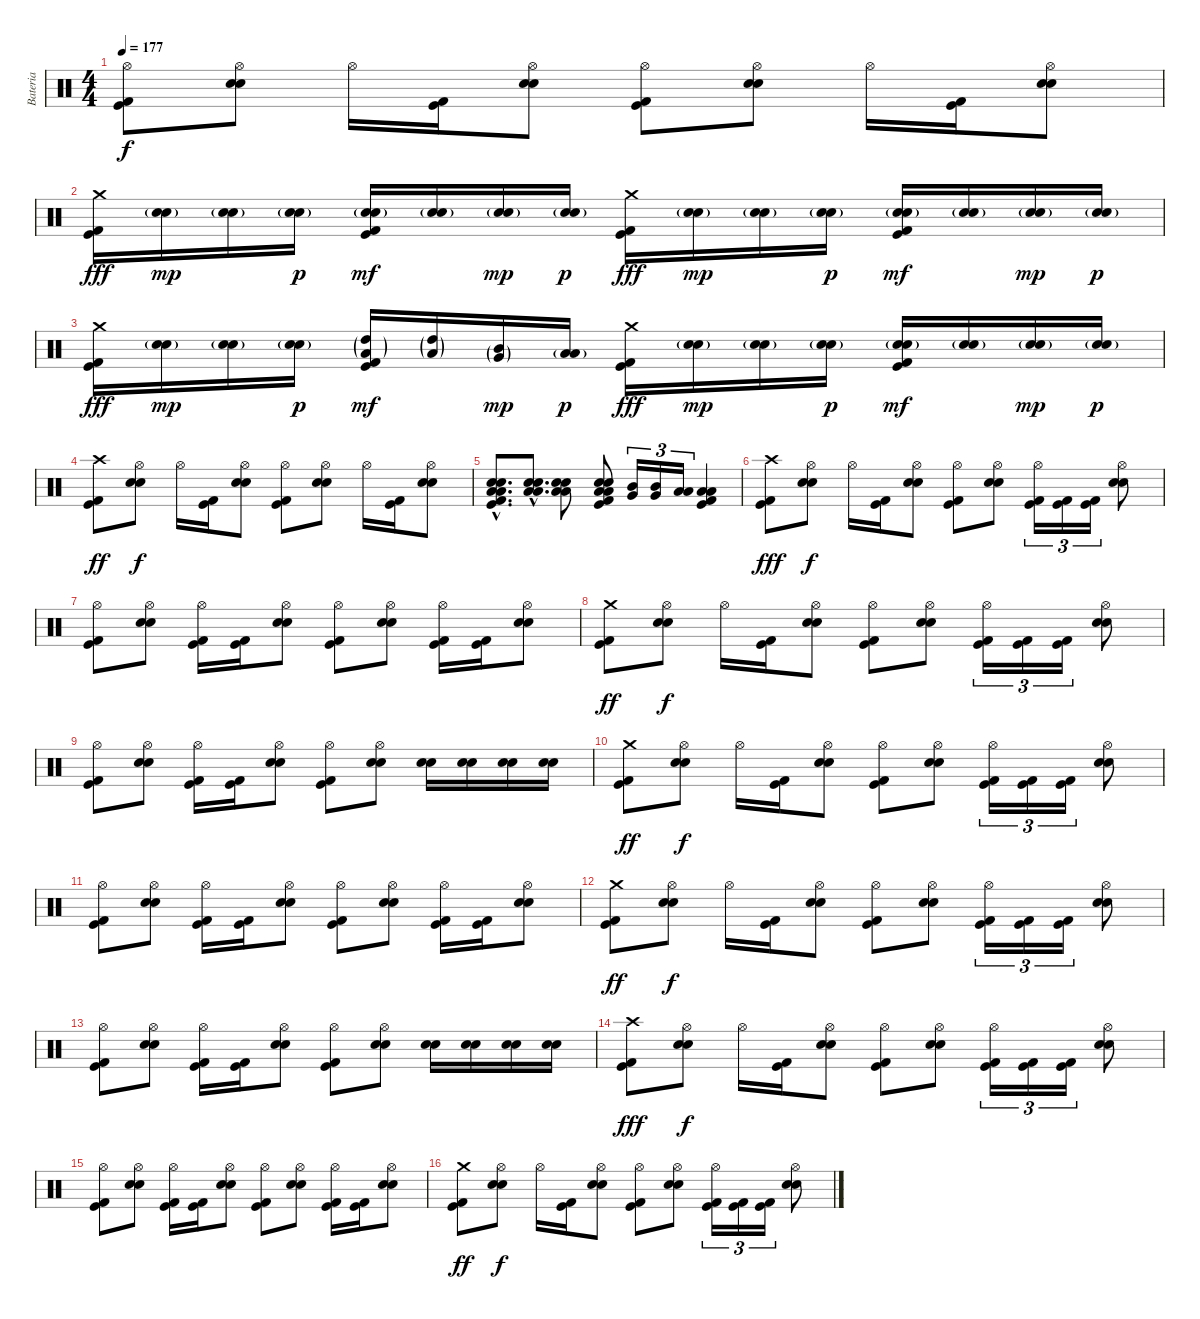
\track ("Bateria" "Bateria") {instrument percussion}
\staff {score}
\articulation defaults
\ts (4 4)
\tempo 177
\clef neutral
\ks c
("Hi-Hat (open)" "Kick (hit) 2" "Kick (hit)").8{dy f} ("Hi-Hat (open)" "Electric Snare (hit)" "Snare (hit) 2").8 "Hi-Hat (open)".16 ("Kick (hit) 2" "Kick (hit)").16 ("Hi-Hat (open)" "Electric Snare (hit)" "Snare (hit) 2").8 ("Hi-Hat (open)" "Kick (hit) 2" "Kick (hit)").8 ("Hi-Hat (open)" "Electric Snare (hit)" "Snare (hit) 2").8 "Hi-Hat (open)".16 ("Kick (hit) 2" "Kick (hit)").16 ("Hi-Hat (open)" "Electric Snare (hit)" "Snare (hit) 2").8 |
("Crash medium (hit)" "Kick (hit) 2" "Kick (hit)").16{dy fff} ("Electric Snare (hit)"{g} "Snare (hit) 2"{g}).16{dy mp} ("Electric Snare (hit)"{g} "Snare (hit) 2"{g}).16 ("Electric Snare (hit)"{g} "Snare (hit) 2"{g}).16{dy p} ("Electric Snare (hit)"{g} "Snare (hit) 2"{g} "Kick (hit) 2" "Kick (hit)").16{dy mf} ("Electric Snare (hit)"{g} "Snare (hit) 2"{g}).16 ("Electric Snare (hit)"{g} "Snare (hit) 2"{g}).16{dy mp} ("Electric Snare (hit)"{g} "Snare (hit) 2"{g}).16{dy p} ("Crash medium (hit)" "Kick (hit) 2" "Kick (hit)").16{dy fff} ("Electric Snare (hit)"{g} "Snare (hit) 2"{g}).16{dy mp} ("Electric Snare (hit)"{g} "Snare (hit) 2"{g}).16 ("Electric Snare (hit)"{g} "Snare (hit) 2"{g}).16{dy p} ("Electric Snare (hit)"{g} "Snare (hit) 2"{g} "Kick (hit) 2" "Kick (hit)").16{dy mf} ("Electric Snare (hit)"{g} "Snare (hit) 2"{g}).16 ("Electric Snare (hit)"{g} "Snare (hit) 2"{g}).16{dy mp} ("Electric Snare (hit)"{g} "Snare (hit) 2"{g}).16{dy p} |
("Crash medium (hit)" "Kick (hit) 2" "Kick (hit)").16{dy fff} ("Electric Snare (hit)"{g} "Snare (hit) 2"{g}).16{dy mp} ("Electric Snare (hit)"{g} "Snare (hit) 2"{g}).16 ("Electric Snare (hit)"{g} "Snare (hit) 2"{g}).16{dy p} ("High Tom (hit)"{g} "Low Tom (hit)"{g} "Kick (hit) 2" "Kick (hit)").16{dy mf} ("High Tom (hit)"{g} "Low Tom (hit)"{g}).16 ("Mid Tom (hit)"{g} "Very Low Tom (hit)"{g}).16{dy mp} ("Low Tom (hit)"{g} "Low Floor Tom (hit)"{g}).16{dy p} ("Crash medium (hit)" "Kick (hit) 2" "Kick (hit)").16{dy fff} ("Electric Snare (hit)"{g} "Snare (hit) 2"{g}).16{dy mp} ("Electric Snare (hit)"{g} "Snare (hit) 2"{g}).16 ("Electric Snare (hit)"{g} "Snare (hit) 2"{g}).16{dy p} ("Electric Snare (hit)"{g} "Snare (hit) 2"{g} "Kick (hit) 2" "Kick (hit)").16{dy mf} ("Electric Snare (hit)"{g} "Snare (hit) 2"{g}).16 ("Electric Snare (hit)"{g} "Snare (hit) 2"{g}).16{dy mp} ("Electric Snare (hit)"{g} "Snare (hit) 2"{g}).16{dy p} |
("Crash high (hit)" "Kick (hit) 2" "Kick (hit)").8{dy ff} ("Hi-Hat (open)" "Electric Snare (hit)" "Snare (hit) 2").8{dy f} "Hi-Hat (open)".16 ("Kick (hit) 2" "Kick (hit)").16 ("Hi-Hat (open)" "Electric Snare (hit)" "Snare (hit) 2").8 ("Hi-Hat (open)" "Kick (hit) 2" "Kick (hit)").8 ("Hi-Hat (open)" "Electric Snare (hit)" "Snare (hit) 2").8 "Hi-Hat (open)".16 ("Kick (hit) 2" "Kick (hit)").16 ("Hi-Hat (open)" "Electric Snare (hit)" "Snare (hit) 2").8 |
("Electric Snare (hit)"{hac} "Snare (hit) 2"{hac} "Low Tom (hit)"{hac} "Low Floor Tom (hit)"{hac} "Kick (hit) 2"{hac} "Kick (hit)"{hac}).8{d} ("Electric Snare (hit)"{hac} "Snare (hit) 2"{hac} "Low Tom (hit)"{hac} "Low Floor Tom (hit)"{hac}).8{d} ("Electric Snare (hit)" "Snare (hit) 2" "Low Tom (hit)" "Low Floor Tom (hit)").8 ("Electric Snare (hit)" "Snare (hit) 2" "Low Tom (hit)" "Low Floor Tom (hit)" "Kick (hit) 2" "Kick (hit)").8 ("Mid Tom (hit)" "Very Low Tom (hit)").16{tu (3 2)} ("Mid Tom (hit)" "Very Low Tom (hit)").16{tu (3 2)} ("Low Tom (hit)" "Low Floor Tom (hit)").16{tu (3 2)} ("Low Tom (hit)" "Low Floor Tom (hit)" "Kick (hit) 2" "Kick (hit)").4 |
("Crash high (hit)" "Kick (hit) 2" "Kick (hit)").8{dy fff} ("Hi-Hat (open)" "Electric Snare (hit)" "Snare (hit) 2").8{dy f} "Hi-Hat (open)".16 ("Kick (hit) 2" "Kick (hit)").16 ("Hi-Hat (open)" "Electric Snare (hit)" "Snare (hit) 2").8 ("Hi-Hat (open)" "Kick (hit) 2" "Kick (hit)").8 ("Hi-Hat (open)" "Electric Snare (hit)" "Snare (hit) 2").8 ("Hi-Hat (open)" "Kick (hit) 2" "Kick (hit)").16{tu (3 2)} ("Kick (hit) 2" "Kick (hit)").16{tu (3 2)} ("Kick (hit) 2" "Kick (hit)").16{tu (3 2)} ("Hi-Hat (open)" "Electric Snare (hit)" "Snare (hit) 2").8 |
("Hi-Hat (open)" "Kick (hit) 2" "Kick (hit)").8 ("Hi-Hat (open)" "Electric Snare (hit)" "Snare (hit) 2").8 ("Hi-Hat (open)" "Kick (hit) 2" "Kick (hit)").16 ("Kick (hit) 2" "Kick (hit)").16 ("Hi-Hat (open)" "Electric Snare (hit)" "Snare (hit) 2").8 ("Hi-Hat (open)" "Kick (hit) 2" "Kick (hit)").8 ("Hi-Hat (open)" "Electric Snare (hit)" "Snare (hit) 2").8 ("Hi-Hat (open)" "Kick (hit) 2" "Kick (hit)").16 ("Kick (hit) 2" "Kick (hit)").16 ("Hi-Hat (open)" "Electric Snare (hit)" "Snare (hit) 2").8 |
("Crash medium (hit)" "Kick (hit) 2" "Kick (hit)").8{dy ff} ("Hi-Hat (open)" "Electric Snare (hit)" "Snare (hit) 2").8{dy f} "Hi-Hat (open)".16 ("Kick (hit) 2" "Kick (hit)").16 ("Hi-Hat (open)" "Electric Snare (hit)" "Snare (hit) 2").8 ("Hi-Hat (open)" "Kick (hit) 2" "Kick (hit)").8 ("Hi-Hat (open)" "Electric Snare (hit)" "Snare (hit) 2").8 ("Hi-Hat (open)" "Kick (hit) 2" "Kick (hit)").16{tu (3 2)} ("Kick (hit) 2" "Kick (hit)").16{tu (3 2)} ("Kick (hit) 2" "Kick (hit)").16{tu (3 2)} ("Hi-Hat (open)" "Electric Snare (hit)" "Snare (hit) 2").8 |
("Hi-Hat (open)" "Kick (hit) 2" "Kick (hit)").8 ("Hi-Hat (open)" "Electric Snare (hit)" "Snare (hit) 2").8 ("Hi-Hat (open)" "Kick (hit) 2" "Kick (hit)").16 ("Kick (hit) 2" "Kick (hit)").16 ("Hi-Hat (open)" "Electric Snare (hit)" "Snare (hit) 2").8 ("Hi-Hat (open)" "Kick (hit) 2" "Kick (hit)").8 ("Hi-Hat (open)" "Electric Snare (hit)" "Snare (hit) 2").8 ("Electric Snare (hit)" "Snare (hit) 2").16 ("Electric Snare (hit)" "Snare (hit) 2").16 ("Electric Snare (hit)" "Snare (hit) 2").16 ("Electric Snare (hit)" "Snare (hit) 2").16 |
("Crash medium (hit)" "Kick (hit) 2" "Kick (hit)").8{dy ff} ("Hi-Hat (open)" "Electric Snare (hit)" "Snare (hit) 2").8{dy f} "Hi-Hat (open)".16 ("Kick (hit) 2" "Kick (hit)").16 ("Hi-Hat (open)" "Electric Snare (hit)" "Snare (hit) 2").8 ("Hi-Hat (open)" "Kick (hit) 2" "Kick (hit)").8 ("Hi-Hat (open)" "Electric Snare (hit)" "Snare (hit) 2").8 ("Hi-Hat (open)" "Kick (hit) 2" "Kick (hit)").16{tu (3 2)} ("Kick (hit) 2" "Kick (hit)").16{tu (3 2)} ("Kick (hit) 2" "Kick (hit)").16{tu (3 2)} ("Hi-Hat (open)" "Electric Snare (hit)" "Snare (hit) 2").8 |
("Hi-Hat (open)" "Kick (hit) 2" "Kick (hit)").8 ("Hi-Hat (open)" "Electric Snare (hit)" "Snare (hit) 2").8 ("Hi-Hat (open)" "Kick (hit) 2" "Kick (hit)").16 ("Kick (hit) 2" "Kick (hit)").16 ("Hi-Hat (open)" "Electric Snare (hit)" "Snare (hit) 2").8 ("Hi-Hat (open)" "Kick (hit) 2" "Kick (hit)").8 ("Hi-Hat (open)" "Electric Snare (hit)" "Snare (hit) 2").8 ("Hi-Hat (open)" "Kick (hit) 2" "Kick (hit)").16 ("Kick (hit) 2" "Kick (hit)").16 ("Hi-Hat (open)" "Electric Snare (hit)" "Snare (hit) 2").8 |
("Crash medium (hit)" "Kick (hit) 2" "Kick (hit)").8{dy ff} ("Hi-Hat (open)" "Electric Snare (hit)" "Snare (hit) 2").8{dy f} "Hi-Hat (open)".16 ("Kick (hit) 2" "Kick (hit)").16 ("Hi-Hat (open)" "Electric Snare (hit)" "Snare (hit) 2").8 ("Hi-Hat (open)" "Kick (hit) 2" "Kick (hit)").8 ("Hi-Hat (open)" "Electric Snare (hit)" "Snare (hit) 2").8 ("Hi-Hat (open)" "Kick (hit) 2" "Kick (hit)").16{tu (3 2)} ("Kick (hit) 2" "Kick (hit)").16{tu (3 2)} ("Kick (hit) 2" "Kick (hit)").16{tu (3 2)} ("Hi-Hat (open)" "Electric Snare (hit)" "Snare (hit) 2").8 |
("Hi-Hat (open)" "Kick (hit) 2" "Kick (hit)").8 ("Hi-Hat (open)" "Electric Snare (hit)" "Snare (hit) 2").8 ("Hi-Hat (open)" "Kick (hit) 2" "Kick (hit)").16 ("Kick (hit) 2" "Kick (hit)").16 ("Hi-Hat (open)" "Electric Snare (hit)" "Snare (hit) 2").8 ("Hi-Hat (open)" "Kick (hit) 2" "Kick (hit)").8 ("Hi-Hat (open)" "Electric Snare (hit)" "Snare (hit) 2").8 ("Electric Snare (hit)" "Snare (hit) 2").16 ("Electric Snare (hit)" "Snare (hit) 2").16 ("Electric Snare (hit)" "Snare (hit) 2").16 ("Electric Snare (hit)" "Snare (hit) 2").16 |
("Crash high (hit)" "Kick (hit) 2" "Kick (hit)").8{dy fff} ("Hi-Hat (open)" "Electric Snare (hit)" "Snare (hit) 2").8{dy f} "Hi-Hat (open)".16 ("Kick (hit) 2" "Kick (hit)").16 ("Hi-Hat (open)" "Electric Snare (hit)" "Snare (hit) 2").8 ("Hi-Hat (open)" "Kick (hit) 2" "Kick (hit)").8 ("Hi-Hat (open)" "Electric Snare (hit)" "Snare (hit) 2").8 ("Hi-Hat (open)" "Kick (hit) 2" "Kick (hit)").16{tu (3 2)} ("Kick (hit) 2" "Kick (hit)").16{tu (3 2)} ("Kick (hit) 2" "Kick (hit)").16{tu (3 2)} ("Hi-Hat (open)" "Electric Snare (hit)" "Snare (hit) 2").8 |
("Hi-Hat (open)" "Kick (hit) 2" "Kick (hit)").8 ("Hi-Hat (open)" "Electric Snare (hit)" "Snare (hit) 2").8 ("Hi-Hat (open)" "Kick (hit) 2" "Kick (hit)").16 ("Kick (hit) 2" "Kick (hit)").16 ("Hi-Hat (open)" "Electric Snare (hit)" "Snare (hit) 2").8 ("Hi-Hat (open)" "Kick (hit) 2" "Kick (hit)").8 ("Hi-Hat (open)" "Electric Snare (hit)" "Snare (hit) 2").8 ("Hi-Hat (open)" "Kick (hit) 2" "Kick (hit)").16 ("Kick (hit) 2" "Kick (hit)").16 ("Hi-Hat (open)" "Electric Snare (hit)" "Snare (hit) 2").8 |
("Crash medium (hit)" "Kick (hit) 2" "Kick (hit)").8{dy ff} ("Hi-Hat (open)" "Electric Snare (hit)" "Snare (hit) 2").8{dy f} "Hi-Hat (open)".16 ("Kick (hit) 2" "Kick (hit)").16 ("Hi-Hat (open)" "Electric Snare (hit)" "Snare (hit) 2").8 ("Hi-Hat (open)" "Kick (hit) 2" "Kick (hit)").8 ("Hi-Hat (open)" "Electric Snare (hit)" "Snare (hit) 2").8 ("Hi-Hat (open)" "Kick (hit) 2" "Kick (hit)").16{tu (3 2)} ("Kick (hit) 2" "Kick (hit)").16{tu (3 2)} ("Kick (hit) 2" "Kick (hit)").16{tu (3 2)} ("Hi-Hat (open)" "Electric Snare (hit)" "Snare (hit) 2").8
